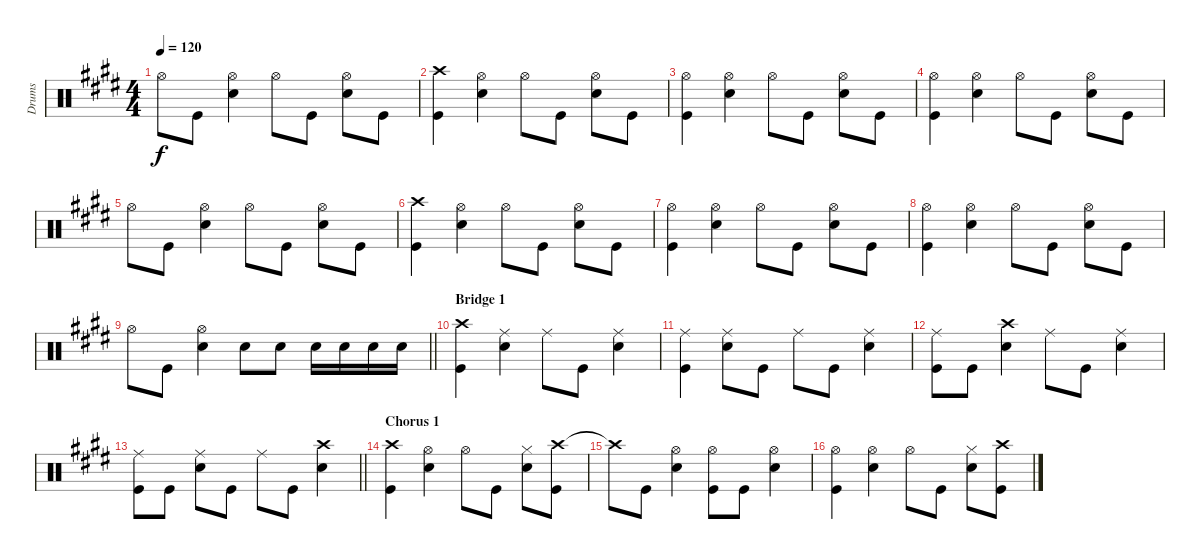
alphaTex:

\track ("Drums" "Drums") {instrument percussion}
\staff {score}
\articulation defaults
\ts (4 4)
\tempo 120
\clef neutral
\ks e "Hi-Hat (open)".8{dy f} "Kick (hit)".8
("Hi-Hat (open)" "Snare (hit) 2").4 "Hi-Hat (open)".8 "Kick (hit)".8 ("Hi-Hat (open)" "Snare (hit) 2").8 "Kick (hit)".8 |
("Crash high (hit)" "Kick (hit)").4 ("Hi-Hat (open)" "Snare (hit) 2").4 "Hi-Hat (open)".8 "Kick (hit)".8 ("Hi-Hat (open)" "Snare (hit) 2").8 "Kick (hit)".8 |
("Hi-Hat (open)" "Kick (hit)").4 ("Hi-Hat (open)" "Snare (hit) 2").4 "Hi-Hat (open)".8 "Kick (hit)".8 ("Hi-Hat (open)" "Snare (hit) 2").8 "Kick (hit)".8 |
("Hi-Hat (open)" "Kick (hit)").4 ("Hi-Hat (open)" "Snare (hit) 2").4 "Hi-Hat (open)".8 "Kick (hit)".8 ("Hi-Hat (open)" "Snare (hit) 2").8 "Kick (hit)".8 |
"Hi-Hat (open)".8 "Kick (hit)".8 ("Hi-Hat (open)" "Snare (hit) 2").4 "Hi-Hat (open)".8 "Kick (hit)".8 ("Hi-Hat (open)" "Snare (hit) 2").8 "Kick (hit)".8 |
("Crash high (hit)" "Kick (hit)").4 ("Hi-Hat (open)" "Snare (hit) 2").4 "Hi-Hat (open)".8 "Kick (hit)".8 ("Hi-Hat (open)" "Snare (hit) 2").8 "Kick (hit)".8 |
("Hi-Hat (open)" "Kick (hit)").4 ("Hi-Hat (open)" "Snare (hit) 2").4 "Hi-Hat (open)".8 "Kick (hit)".8 ("Hi-Hat (open)" "Snare (hit) 2").8 "Kick (hit)".8 |
("Hi-Hat (open)" "Kick (hit)").4 ("Hi-Hat (open)" "Snare (hit) 2").4 "Hi-Hat (open)".8 "Kick (hit)".8 ("Hi-Hat (open)" "Snare (hit) 2").8 "Kick (hit)".8 |
\barLineRight lightlight "Hi-Hat (open)".8 "Kick (hit)".8
("Hi-Hat (open)" "Snare (hit) 2").4 "Snare (hit) 2".8 "Snare (hit) 2".8 "Snare (hit) 2".16 "Snare (hit) 2".16 "Snare (hit) 2".16 "Snare (hit) 2".16 |
\section ("" "Bridge 1")
("Crash high (hit)" "Kick (hit)").4 ("Ride (middle)" "Snare (hit) 2").4 "Ride (middle)".8 "Kick (hit)".8 ("Ride (middle)" "Snare (hit) 2").4 |
("Kick (hit)" "Ride (middle)").4 ("Ride (middle)" "Snare (hit) 2").8 "Kick (hit)".8 "Ride (middle)".8 "Kick (hit)".8 ("Snare (hit) 2" "Ride (middle)").4 |
("Ride (middle)" "Kick (hit)").8 "Kick (hit)".8 ("Crash high (hit)" "Snare (hit) 2").4 "Ride (middle)".8 "Kick (hit)".8 ("Ride (middle)" "Snare (hit) 2").4 |
\barLineRight lightlight
("Ride (middle)" "Kick (hit)").8 "Kick (hit)".8 ("Ride (middle)" "Snare (hit) 2").8 "Kick (hit)".8 "Ride (middle)".8 "Kick (hit)".8 ("Crash high (hit)" "Snare (hit) 2").4 |
\section ("" "Chorus 1")
("Crash high (hit)" "Kick (hit)").4 ("Hi-Hat (open)" "Snare (hit) 2").4 "Hi-Hat (open)".8 "Kick (hit)".8 ("Hi-Hat (closed)" "Snare (hit) 2").8 ("Crash high (hit)" "Kick (hit)").8 |
"Crash high (hit)"{t}.8 "Kick (hit)".8 ("Hi-Hat (open)" "Snare (hit) 2").4 ("Hi-Hat (open)" "Kick (hit)").8 "Kick (hit)".8 ("Hi-Hat (open)" "Snare (hit) 2").4 |
("Hi-Hat (open)" "Kick (hit)").4 ("Hi-Hat (open)" "Snare (hit) 2").4 "Hi-Hat (open)".8 "Kick (hit)".8 ("Hi-Hat (closed)" "Snare (hit) 2").8 ("Crash high (hit)" "Kick (hit)").8
